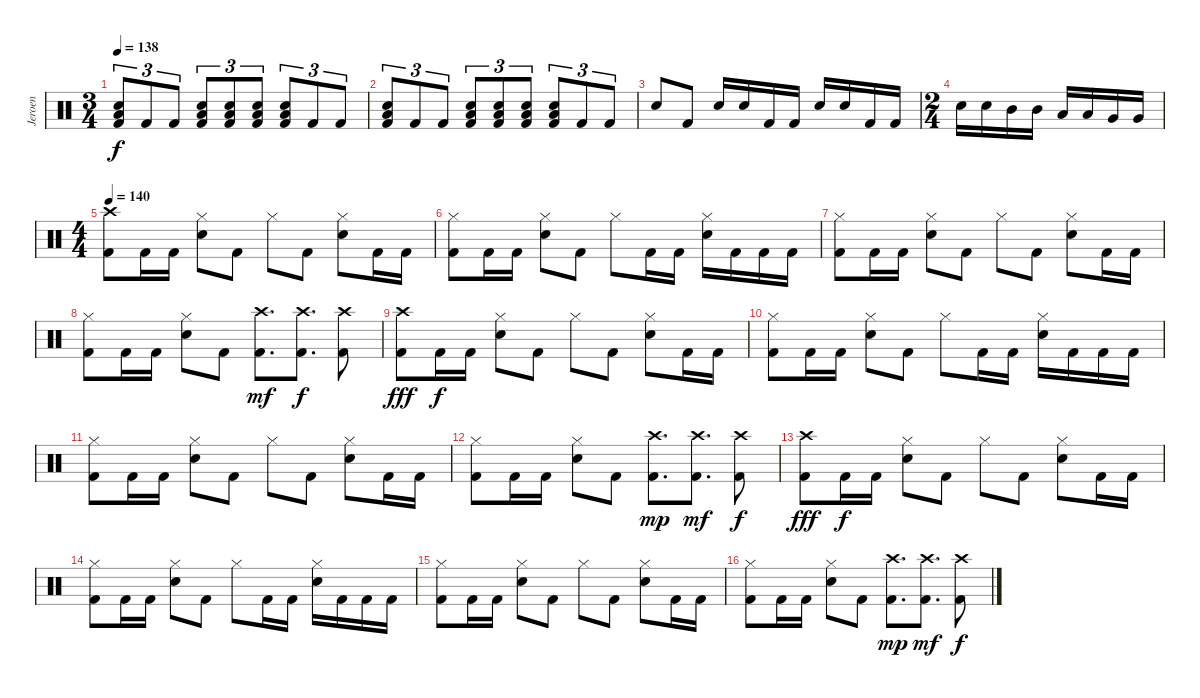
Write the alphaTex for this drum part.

\track ("Jeroen" "Jeroen") {instrument percussion}
\staff {score}
\articulation defaults
\ts (3 4)
\tempo 138
\clef neutral
\ks c
("Low Tom (hit)" "Electric Snare (hit)" "Kick (hit) 2").8{tu (3 2) dy f} "Kick (hit) 2".8{tu (3 2)} "Kick (hit) 2".8{tu (3 2)} ("Low Tom (hit)" "Electric Snare (hit)" "Kick (hit) 2").8{tu (3 2)} ("Low Tom (hit)" "Electric Snare (hit)" "Kick (hit) 2").8{tu (3 2)} ("Low Tom (hit)" "Electric Snare (hit)" "Kick (hit) 2").8{tu (3 2)} ("Low Tom (hit)" "Electric Snare (hit)" "Kick (hit) 2").8{tu (3 2)} "Kick (hit) 2".8{tu (3 2)} "Kick (hit) 2".8{tu (3 2)} |
("Low Tom (hit)" "Electric Snare (hit)" "Kick (hit) 2").8{tu (3 2)} "Kick (hit) 2".8{tu (3 2)} "Kick (hit) 2".8{tu (3 2)} ("Low Tom (hit)" "Electric Snare (hit)" "Kick (hit) 2").8{tu (3 2)} ("Low Tom (hit)" "Electric Snare (hit)" "Kick (hit) 2").8{tu (3 2)} ("Low Tom (hit)" "Electric Snare (hit)" "Kick (hit) 2").8{tu (3 2)} ("Low Tom (hit)" "Electric Snare (hit)" "Kick (hit) 2").8{tu (3 2)} "Kick (hit) 2".8{tu (3 2)} "Kick (hit) 2".8{tu (3 2)} |
"Electric Snare (hit)".8 "Kick (hit) 2".8 "Electric Snare (hit)".16 "Electric Snare (hit)".16 "Kick (hit) 2".16 "Kick (hit) 2".16 "Electric Snare (hit)".16 "Electric Snare (hit)".16 "Kick (hit) 2".16 "Kick (hit) 2".16 |
\ts (2 4)
"Electric Snare (hit)".16 "Electric Snare (hit)".16 "Mid Tom (hit)".16 "Mid Tom (hit)".16 "Low Tom (hit)".16 "Low Tom (hit)".16 "Very Low Tom (hit)".16 "Very Low Tom (hit)".16 |
\ts (4 4)
\tempo 140
("Crash high (hit)" "Kick (hit) 2").8 "Kick (hit) 2".16 "Kick (hit) 2".16 ("Hi-Hat (closed)" "Electric Snare (hit)").8 "Kick (hit) 2".8 "Hi-Hat (closed)".8 "Kick (hit) 2".8 ("Hi-Hat (closed)" "Electric Snare (hit)").8 "Kick (hit) 2".16 "Kick (hit) 2".16 |
("Hi-Hat (closed)" "Kick (hit) 2").8 "Kick (hit) 2".16 "Kick (hit) 2".16 ("Hi-Hat (closed)" "Electric Snare (hit)").8 "Kick (hit) 2".8 "Hi-Hat (closed)".8 "Kick (hit) 2".16 "Kick (hit) 2".16 ("Hi-Hat (closed)" "Electric Snare (hit)").16 "Kick (hit) 2".16 "Kick (hit) 2".16 "Kick (hit) 2".16 |
("Hi-Hat (closed)" "Kick (hit) 2").8 "Kick (hit) 2".16 "Kick (hit) 2".16 ("Hi-Hat (closed)" "Electric Snare (hit)").8 "Kick (hit) 2".8 "Hi-Hat (closed)".8 "Kick (hit) 2".8 ("Hi-Hat (closed)" "Electric Snare (hit)").8 "Kick (hit) 2".16 "Kick (hit) 2".16 |
("Hi-Hat (closed)" "Kick (hit) 2").8 "Kick (hit) 2".16 "Kick (hit) 2".16 ("Hi-Hat (closed)" "Electric Snare (hit)").8 "Kick (hit) 2".8 ("Crash high (hit)" "Kick (hit) 2").8{d dy mf} ("Crash high (hit)" "Kick (hit) 2").8{d dy f} ("Crash high (hit)" "Kick (hit) 2").8 |
("Crash high (hit)" "Kick (hit) 2").8{dy fff} "Kick (hit) 2".16{dy f} "Kick (hit) 2".16 ("Hi-Hat (closed)" "Electric Snare (hit)").8 "Kick (hit) 2".8 "Hi-Hat (closed)".8 "Kick (hit) 2".8 ("Hi-Hat (closed)" "Electric Snare (hit)").8 "Kick (hit) 2".16 "Kick (hit) 2".16 |
("Hi-Hat (closed)" "Kick (hit) 2").8 "Kick (hit) 2".16 "Kick (hit) 2".16 ("Hi-Hat (closed)" "Electric Snare (hit)").8 "Kick (hit) 2".8 "Hi-Hat (closed)".8 "Kick (hit) 2".16 "Kick (hit) 2".16 ("Hi-Hat (closed)" "Electric Snare (hit)").16 "Kick (hit) 2".16 "Kick (hit) 2".16 "Kick (hit) 2".16 |
("Hi-Hat (closed)" "Kick (hit) 2").8 "Kick (hit) 2".16 "Kick (hit) 2".16 ("Hi-Hat (closed)" "Electric Snare (hit)").8 "Kick (hit) 2".8 "Hi-Hat (closed)".8 "Kick (hit) 2".8 ("Hi-Hat (closed)" "Electric Snare (hit)").8 "Kick (hit) 2".16 "Kick (hit) 2".16 |
("Hi-Hat (closed)" "Kick (hit) 2").8 "Kick (hit) 2".16 "Kick (hit) 2".16 ("Hi-Hat (closed)" "Electric Snare (hit)").8 "Kick (hit) 2".8 ("Crash high (hit)" "Kick (hit) 2").8{d dy mp} ("Crash high (hit)" "Kick (hit) 2").8{d dy mf} ("Crash high (hit)" "Kick (hit) 2").8{dy f} |
("Crash high (hit)" "Kick (hit) 2").8{dy fff} "Kick (hit) 2".16{dy f} "Kick (hit) 2".16 ("Hi-Hat (closed)" "Electric Snare (hit)").8 "Kick (hit) 2".8 "Hi-Hat (closed)".8 "Kick (hit) 2".8 ("Hi-Hat (closed)" "Electric Snare (hit)").8 "Kick (hit) 2".16 "Kick (hit) 2".16 |
("Hi-Hat (closed)" "Kick (hit) 2").8 "Kick (hit) 2".16 "Kick (hit) 2".16 ("Hi-Hat (closed)" "Electric Snare (hit)").8 "Kick (hit) 2".8 "Hi-Hat (closed)".8 "Kick (hit) 2".16 "Kick (hit) 2".16 ("Hi-Hat (closed)" "Electric Snare (hit)").16 "Kick (hit) 2".16 "Kick (hit) 2".16 "Kick (hit) 2".16 |
("Hi-Hat (closed)" "Kick (hit) 2").8 "Kick (hit) 2".16 "Kick (hit) 2".16 ("Hi-Hat (closed)" "Electric Snare (hit)").8 "Kick (hit) 2".8 "Hi-Hat (closed)".8 "Kick (hit) 2".8 ("Hi-Hat (closed)" "Electric Snare (hit)").8 "Kick (hit) 2".16 "Kick (hit) 2".16 |
("Hi-Hat (closed)" "Kick (hit) 2").8 "Kick (hit) 2".16 "Kick (hit) 2".16 ("Hi-Hat (closed)" "Electric Snare (hit)").8 "Kick (hit) 2".8 ("Crash high (hit)" "Kick (hit) 2").8{d dy mp} ("Crash high (hit)" "Kick (hit) 2").8{d dy mf} ("Crash high (hit)" "Kick (hit) 2").8{dy f}
